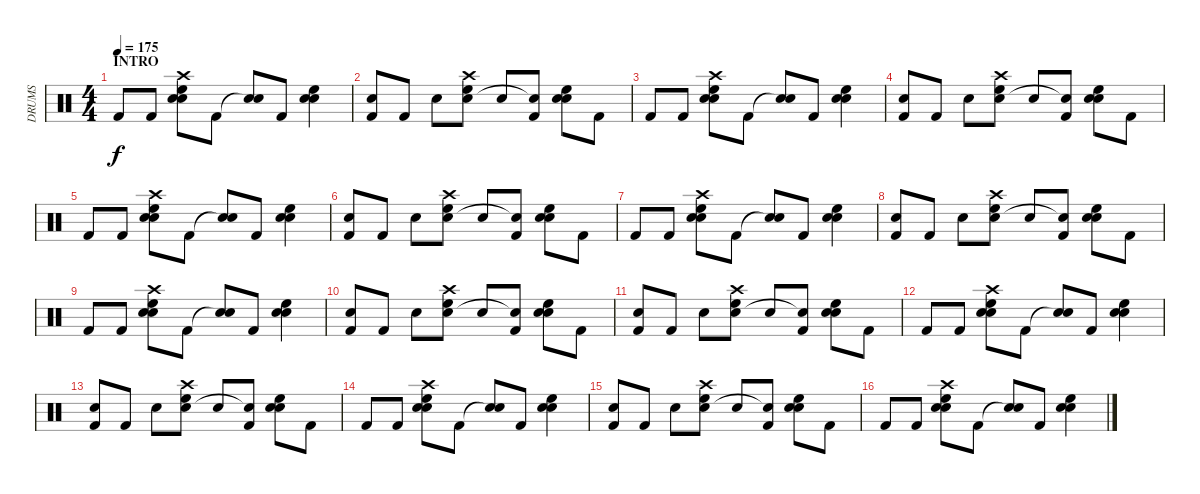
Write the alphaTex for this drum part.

\track ("DRUMS" "DRUMS") {instrument percussion}
\staff {score}
\articulation defaults
\ts (4 4)
\section ("" "INTRO")
\tempo 175
\clef neutral
\ks c "Kick (hit) 2".8{dy f} "Kick (hit) 2".8
("High Floor Tom (hit)" "Electric Snare (hit)" "Crash high (hit)" "Metronome (bell)").8 "Kick (hit) 2".8 ("Snare (hit)"{t} "Metronome (bell)").8 "Kick (hit) 2".8 ("High Floor Tom (hit)" "Electric Snare (hit)" "Metronome (bell)").4 |
("Kick (hit) 2" "Metronome (bell)").8 "Kick (hit) 2".8 "Metronome (bell)".8 ("High Floor Tom (hit)" "Electric Snare (hit)" "Crash high (hit)").8 "Metronome (bell)".8 ("Kick (hit) 2" "Snare (hit)"{t}).8 ("High Floor Tom (hit)" "Electric Snare (hit)" "Metronome (bell)").8 "Kick (hit) 2".8 |
"Kick (hit) 2".8 "Kick (hit) 2".8 ("High Floor Tom (hit)" "Electric Snare (hit)" "Crash high (hit)" "Metronome (bell)").8 "Kick (hit) 2".8 ("Snare (hit)"{t} "Metronome (bell)").8 "Kick (hit) 2".8 ("High Floor Tom (hit)" "Electric Snare (hit)" "Metronome (bell)").4 |
("Kick (hit) 2" "Metronome (bell)").8 "Kick (hit) 2".8 "Metronome (bell)".8 ("High Floor Tom (hit)" "Electric Snare (hit)" "Crash high (hit)").8 "Metronome (bell)".8 ("Kick (hit) 2" "Snare (hit)"{t}).8 ("High Floor Tom (hit)" "Electric Snare (hit)" "Metronome (bell)").8 "Kick (hit) 2".8 |
"Kick (hit) 2".8 "Kick (hit) 2".8 ("High Floor Tom (hit)" "Electric Snare (hit)" "Crash high (hit)" "Metronome (bell)").8 "Kick (hit) 2".8 ("Snare (hit)"{t} "Metronome (bell)").8 "Kick (hit) 2".8 ("High Floor Tom (hit)" "Electric Snare (hit)" "Metronome (bell)").4 |
("Kick (hit) 2" "Metronome (bell)").8 "Kick (hit) 2".8 "Metronome (bell)".8 ("High Floor Tom (hit)" "Electric Snare (hit)" "Crash high (hit)").8 "Metronome (bell)".8 ("Kick (hit) 2" "Snare (hit)"{t}).8 ("High Floor Tom (hit)" "Electric Snare (hit)" "Metronome (bell)").8 "Kick (hit) 2".8 |
"Kick (hit) 2".8 "Kick (hit) 2".8 ("High Floor Tom (hit)" "Electric Snare (hit)" "Crash high (hit)" "Metronome (bell)").8 "Kick (hit) 2".8 ("Snare (hit)"{t} "Metronome (bell)").8 "Kick (hit) 2".8 ("High Floor Tom (hit)" "Electric Snare (hit)" "Metronome (bell)").4 |
("Kick (hit) 2" "Metronome (bell)").8 "Kick (hit) 2".8 "Metronome (bell)".8 ("High Floor Tom (hit)" "Electric Snare (hit)" "Crash high (hit)").8 "Metronome (bell)".8 ("Kick (hit) 2" "Snare (hit)"{t}).8 ("High Floor Tom (hit)" "Electric Snare (hit)" "Metronome (bell)").8 "Kick (hit) 2".8 |
"Kick (hit) 2".8 "Kick (hit) 2".8 ("High Floor Tom (hit)" "Electric Snare (hit)" "Crash high (hit)" "Metronome (bell)").8 "Kick (hit) 2".8 ("Snare (hit)"{t} "Metronome (bell)").8 "Kick (hit) 2".8 ("High Floor Tom (hit)" "Electric Snare (hit)" "Metronome (bell)").4 |
("Kick (hit) 2" "Metronome (bell)").8 "Kick (hit) 2".8 "Metronome (bell)".8 ("High Floor Tom (hit)" "Electric Snare (hit)" "Crash high (hit)").8 "Metronome (bell)".8 ("Kick (hit) 2" "Snare (hit)"{t}).8 ("High Floor Tom (hit)" "Electric Snare (hit)" "Metronome (bell)").8 "Kick (hit) 2".8 |
("Kick (hit) 2" "Metronome (bell)").8 "Kick (hit) 2".8 "Metronome (bell)".8 ("High Floor Tom (hit)" "Electric Snare (hit)" "Crash high (hit)").8 "Metronome (bell)".8 ("Kick (hit) 2" "Snare (hit)"{t}).8 ("High Floor Tom (hit)" "Electric Snare (hit)" "Metronome (bell)").8 "Kick (hit) 2".8 |
"Kick (hit) 2".8 "Kick (hit) 2".8 ("High Floor Tom (hit)" "Electric Snare (hit)" "Crash high (hit)" "Metronome (bell)").8 "Kick (hit) 2".8 ("Snare (hit)"{t} "Metronome (bell)").8 "Kick (hit) 2".8 ("High Floor Tom (hit)" "Electric Snare (hit)" "Metronome (bell)").4 |
("Kick (hit) 2" "Metronome (bell)").8 "Kick (hit) 2".8 "Metronome (bell)".8 ("High Floor Tom (hit)" "Electric Snare (hit)" "Crash high (hit)").8 "Metronome (bell)".8 ("Kick (hit) 2" "Snare (hit)"{t}).8 ("High Floor Tom (hit)" "Electric Snare (hit)" "Metronome (bell)").8 "Kick (hit) 2".8 |
"Kick (hit) 2".8 "Kick (hit) 2".8 ("High Floor Tom (hit)" "Electric Snare (hit)" "Crash high (hit)" "Metronome (bell)").8 "Kick (hit) 2".8 ("Snare (hit)"{t} "Metronome (bell)").8 "Kick (hit) 2".8 ("High Floor Tom (hit)" "Electric Snare (hit)" "Metronome (bell)").4 |
("Kick (hit) 2" "Metronome (bell)").8 "Kick (hit) 2".8 "Metronome (bell)".8 ("High Floor Tom (hit)" "Electric Snare (hit)" "Crash high (hit)").8 "Metronome (bell)".8 ("Kick (hit) 2" "Snare (hit)"{t}).8 ("High Floor Tom (hit)" "Electric Snare (hit)" "Metronome (bell)").8 "Kick (hit) 2".8 |
"Kick (hit) 2".8 "Kick (hit) 2".8 ("High Floor Tom (hit)" "Electric Snare (hit)" "Crash high (hit)" "Metronome (bell)").8 "Kick (hit) 2".8 ("Snare (hit)"{t} "Metronome (bell)").8 "Kick (hit) 2".8 ("High Floor Tom (hit)" "Electric Snare (hit)" "Metronome (bell)").4
